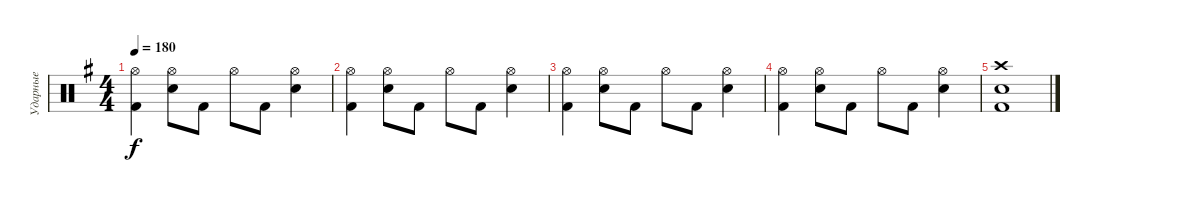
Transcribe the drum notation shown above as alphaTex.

\track ("Ударные" "Ударные") {instrument percussion}
\staff {score}
\articulation defaults
\ts (4 4)
\tempo 180
\clef neutral
\ks g
("Hi-Hat (open)" "Kick (hit) 2").4{dy f} ("Hi-Hat (open)" "Snare (hit) 2").8 "Kick (hit) 2".8 "Hi-Hat (open)".8 "Kick (hit) 2".8 ("Hi-Hat (open)" "Snare (hit) 2").4 |
("Hi-Hat (open)" "Kick (hit) 2").4 ("Hi-Hat (open)" "Snare (hit) 2").8 "Kick (hit) 2".8 "Hi-Hat (open)".8 "Kick (hit) 2".8 ("Hi-Hat (open)" "Snare (hit) 2").4 |
("Hi-Hat (open)" "Kick (hit) 2").4 ("Hi-Hat (open)" "Snare (hit) 2").8 "Kick (hit) 2".8 "Hi-Hat (open)".8 "Kick (hit) 2".8 ("Hi-Hat (open)" "Snare (hit) 2").4 |
("Hi-Hat (open)" "Kick (hit) 2").4 ("Hi-Hat (open)" "Snare (hit) 2").8 "Kick (hit) 2".8 "Hi-Hat (open)".8 "Kick (hit) 2".8 ("Hi-Hat (open)" "Snare (hit) 2").4 |
("Kick (hit) 2" "Snare (hit) 2" "Crash high (hit)").1
